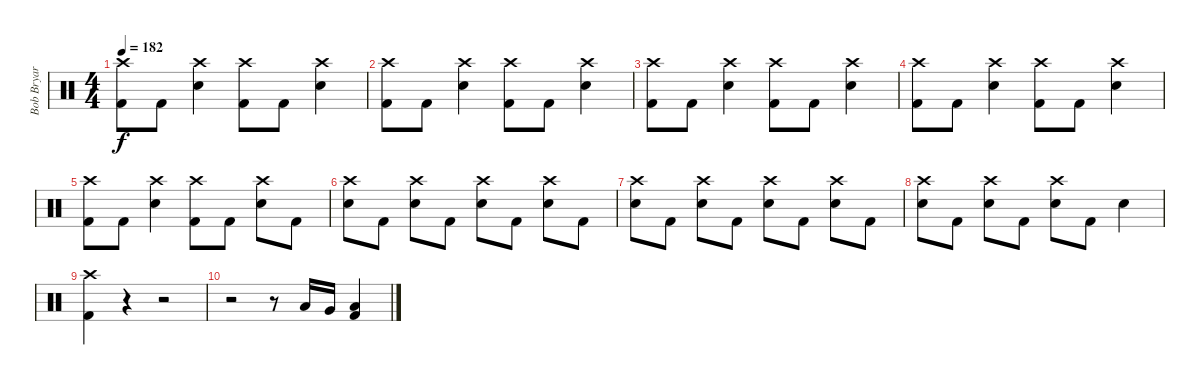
\track ("Bob Bryar" "Bob Bryar") {instrument percussion}
\staff {score}
\articulation defaults
\ts (4 4)
\tempo 182
\clef neutral
\ks c
("Kick (hit) 2" "Crash high (hit)").8{dy f} "Kick (hit) 2".8 ("Snare (hit) 2" "Crash high (hit)").4 ("Kick (hit) 2" "Crash high (hit)").8 "Kick (hit) 2".8 ("Snare (hit) 2" "Crash high (hit)").4 |
("Kick (hit) 2" "Crash high (hit)").8 "Kick (hit) 2".8 ("Snare (hit) 2" "Crash high (hit)").4 ("Kick (hit) 2" "Crash high (hit)").8 "Kick (hit) 2".8 ("Snare (hit) 2" "Crash high (hit)").4 |
("Kick (hit) 2" "Crash high (hit)").8 "Kick (hit) 2".8 ("Snare (hit) 2" "Crash high (hit)").4 ("Kick (hit) 2" "Crash high (hit)").8 "Kick (hit) 2".8 ("Snare (hit) 2" "Crash high (hit)").4 |
("Kick (hit) 2" "Crash high (hit)").8 "Kick (hit) 2".8 ("Snare (hit) 2" "Crash high (hit)").4 ("Kick (hit) 2" "Crash high (hit)").8 "Kick (hit) 2".8 ("Snare (hit) 2" "Crash high (hit)").4 |
("Kick (hit) 2" "Crash high (hit)").8 "Kick (hit) 2".8 ("Snare (hit) 2" "Crash high (hit)").4 ("Kick (hit) 2" "Crash high (hit)").8 "Kick (hit) 2".8 ("Snare (hit) 2" "Crash high (hit)").8 "Kick (hit) 2".8 |
("Snare (hit) 2" "Crash high (hit)").8 "Kick (hit) 2".8 ("Snare (hit) 2" "Crash high (hit)").8 "Kick (hit) 2".8 ("Snare (hit) 2" "Crash high (hit)").8 "Kick (hit) 2".8 ("Snare (hit) 2" "Crash high (hit)").8 "Kick (hit) 2".8 |
("Snare (hit) 2" "Crash high (hit)").8 "Kick (hit) 2".8 ("Snare (hit) 2" "Crash high (hit)").8 "Kick (hit) 2".8 ("Snare (hit) 2" "Crash high (hit)").8 "Kick (hit) 2".8 ("Snare (hit) 2" "Crash high (hit)").8 "Kick (hit) 2".8 |
("Snare (hit) 2" "Crash high (hit)").8 "Kick (hit) 2".8 ("Snare (hit) 2" "Crash high (hit)").8 "Kick (hit) 2".8 ("Snare (hit) 2" "Crash high (hit)").8 "Kick (hit) 2".8 "Snare (hit) 2".4 |
("Kick (hit) 2" "Crash high (hit)").4 r.4 r.2 |
r.2 r.8 "Low Tom (hit)".16 "Very Low Tom (hit)".16 ("Low Floor Tom (hit)" "Kick (hit) 2").4
